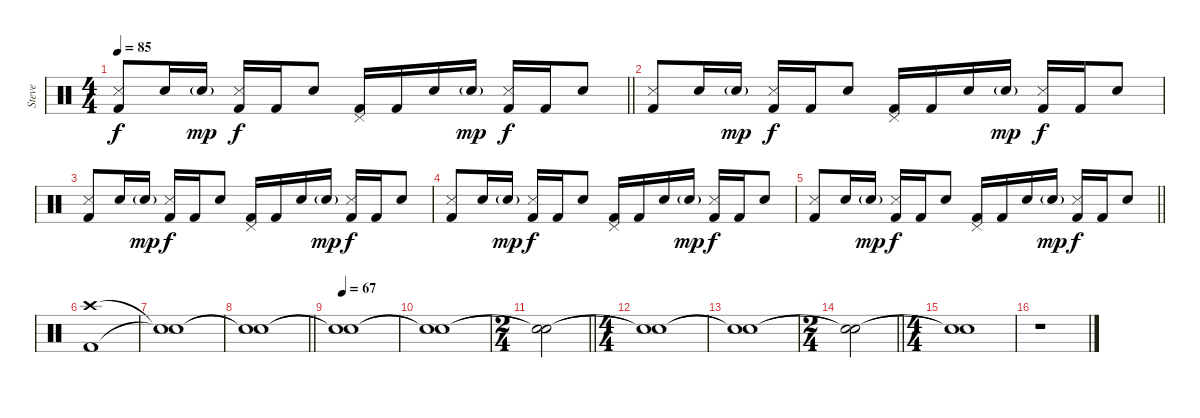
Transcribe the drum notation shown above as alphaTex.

\track ("Steve" "Steve") {instrument percussion}
\staff {score}
\articulation defaults
\ts (4 4)
\tempo 85
\clef neutral
\barLineRight lightlight
\ks c
("Kick (hit) 2" "Snare (side stick) 3").8{dy f} "Snare (hit) 2".16 "Snare (hit) 2"{g}.16{dy mp} ("Kick (hit) 2" "Snare (side stick) 3").16{dy f} "Kick (hit) 2".16 "Snare (hit) 2".8 ("Kick (hit) 2" "Pedal Hi-Hat (hit)").16 "Kick (hit) 2".16 "Snare (hit) 2".16 "Snare (hit) 2"{g}.16{dy mp} ("Kick (hit) 2" "Snare (side stick) 3").16{dy f} "Kick (hit) 2".16 "Snare (hit) 2".8 |
("Kick (hit) 2" "Snare (side stick) 3").8 "Snare (hit) 2".16 "Snare (hit) 2"{g}.16{dy mp} ("Kick (hit) 2" "Snare (side stick) 3").16{dy f} "Kick (hit) 2".16 "Snare (hit) 2".8 ("Kick (hit) 2" "Pedal Hi-Hat (hit)").16 "Kick (hit) 2".16 "Snare (hit) 2".16 "Snare (hit) 2"{g}.16{dy mp} ("Kick (hit) 2" "Snare (side stick) 3").16{dy f} "Kick (hit) 2".16 "Snare (hit) 2".8 |
("Kick (hit) 2" "Snare (side stick) 3").8 "Snare (hit) 2".16 "Snare (hit) 2"{g}.16{dy mp} ("Kick (hit) 2" "Snare (side stick) 3").16{dy f} "Kick (hit) 2".16 "Snare (hit) 2".8 ("Kick (hit) 2" "Pedal Hi-Hat (hit)").16 "Kick (hit) 2".16 "Snare (hit) 2".16 "Snare (hit) 2"{g}.16{dy mp} ("Kick (hit) 2" "Snare (side stick) 3").16{dy f} "Kick (hit) 2".16 "Snare (hit) 2".8 |
("Kick (hit) 2" "Snare (side stick) 3").8 "Snare (hit) 2".16 "Snare (hit) 2"{g}.16{dy mp} ("Kick (hit) 2" "Snare (side stick) 3").16{dy f} "Kick (hit) 2".16 "Snare (hit) 2".8 ("Kick (hit) 2" "Pedal Hi-Hat (hit)").16 "Kick (hit) 2".16 "Snare (hit) 2".16 "Snare (hit) 2"{g}.16{dy mp} ("Kick (hit) 2" "Snare (side stick) 3").16{dy f} "Kick (hit) 2".16 "Snare (hit) 2".8 |
\barLineRight lightlight
("Kick (hit) 2" "Snare (side stick) 3").8 "Snare (hit) 2".16 "Snare (hit) 2"{g}.16{dy mp} ("Kick (hit) 2" "Snare (side stick) 3").16{dy f} "Kick (hit) 2".16 "Snare (hit) 2".8 ("Kick (hit) 2" "Pedal Hi-Hat (hit)").16 "Kick (hit) 2".16 "Snare (hit) 2".16 "Snare (hit) 2"{g}.16{dy mp} ("Kick (hit) 2" "Snare (side stick) 3").16{dy f} "Kick (hit) 2".16 "Snare (hit) 2".8 |
("Kick (hit) 2" "Crash high (hit)").1 |
("Snare (hit)"{t} "Snare (hit)"{t}).1 |
\barLineRight lightlight
("Snare (hit)"{t} "Snare (hit)"{t}).1 |
\tempo 67
("Snare (hit)"{t} "Snare (hit)"{t}).1 |
("Snare (hit)"{t} "Snare (hit)"{t}).1 |
\ts (2 4)
\barLineRight lightlight
("Snare (hit)"{t} "Snare (hit)"{t}).2 |
\ts (4 4)
("Snare (hit)"{t} "Snare (hit)"{t}).1 |
("Snare (hit)"{t} "Snare (hit)"{t}).1 |
\ts (2 4)
\barLineRight lightlight
("Snare (hit)"{t} "Snare (hit)"{t}).2 |
\ts (4 4)
("Snare (hit)"{t} "Snare (hit)"{t}).1 |
r.1
